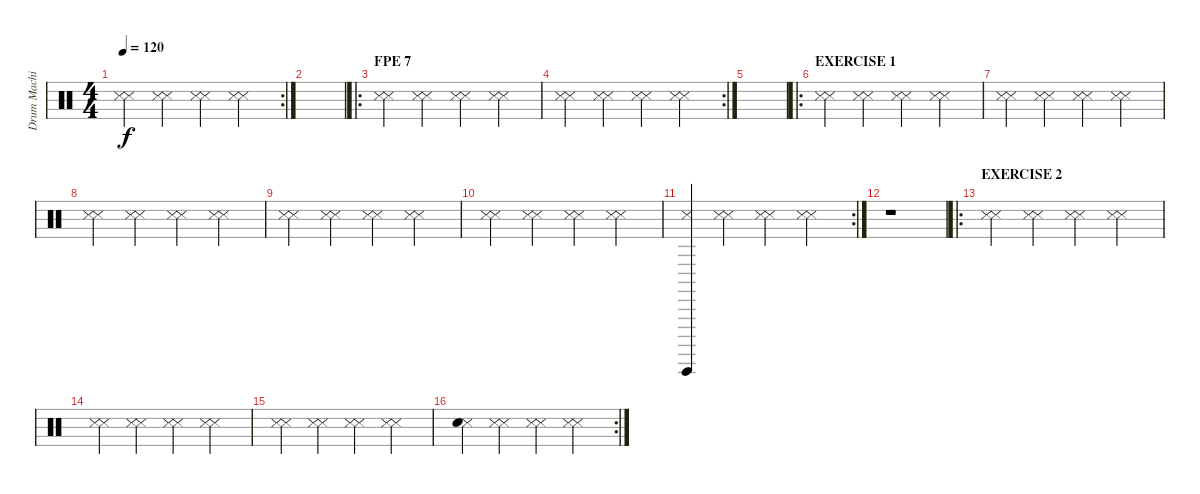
\track ("Drum Machine" "Drum Machi") {instrument percussion}
\staff {score}
\articulation defaults
\rc 2
\ts (4 4)
\tempo 120
\clef neutral
\ks c
("Snare (side stick) 3" "Snare (side stick) 3").4{dy f} ("Snare (side stick) 3" "Snare (side stick) 3").4 ("Snare (side stick) 3" "Snare (side stick) 3").4 ("Snare (side stick) 3" "Snare (side stick) 3").4 |
|
\ro
\section ("" "FPE 7")
("Snare (side stick) 3" "Snare (side stick) 3").4 ("Snare (side stick) 3" "Snare (side stick) 3").4 ("Snare (side stick) 3" "Snare (side stick) 3").4 ("Snare (side stick) 3" "Snare (side stick) 3").4 |
\rc 2
("Snare (side stick) 3" "Snare (side stick) 3").4 ("Snare (side stick) 3" "Snare (side stick) 3").4 ("Snare (side stick) 3" "Snare (side stick) 3").4 ("Snare (side stick) 3" "Snare (side stick) 3").4 |
|
\ro
\section ("" "EXERCISE 1")
("Snare (side stick) 3" "Snare (side stick) 3").4 ("Snare (side stick) 3" "Snare (side stick) 3").4 ("Snare (side stick) 3" "Snare (side stick) 3").4 ("Snare (side stick) 3" "Snare (side stick) 3").4 |
("Snare (side stick) 3" "Snare (side stick) 3").4 ("Snare (side stick) 3" "Snare (side stick) 3").4 ("Snare (side stick) 3" "Snare (side stick) 3").4 ("Snare (side stick) 3" "Snare (side stick) 3").4 |
("Snare (side stick) 3" "Snare (side stick) 3").4 ("Snare (side stick) 3" "Snare (side stick) 3").4 ("Snare (side stick) 3" "Snare (side stick) 3").4 ("Snare (side stick) 3" "Snare (side stick) 3").4 |
("Snare (side stick) 3" "Snare (side stick) 3").4 ("Snare (side stick) 3" "Snare (side stick) 3").4 ("Snare (side stick) 3" "Snare (side stick) 3").4 ("Snare (side stick) 3" "Snare (side stick) 3").4 |
("Snare (side stick) 3" "Snare (side stick) 3").4 ("Snare (side stick) 3" "Snare (side stick) 3").4 ("Snare (side stick) 3" "Snare (side stick) 3").4 ("Snare (side stick) 3" "Snare (side stick) 3").4 |
\rc 2
("Guiro (hit)" "Snare (side stick) 3").4 ("Snare (side stick) 3" "Snare (side stick) 3").4 ("Snare (side stick) 3" "Snare (side stick) 3").4 ("Snare (side stick) 3" "Snare (side stick) 3").4 |
r.1 |
\ro
\section ("" "EXERCISE 2")
("Snare (side stick) 3" "Snare (side stick) 3").4 ("Snare (side stick) 3" "Snare (side stick) 3").4 ("Snare (side stick) 3" "Snare (side stick) 3").4 ("Snare (side stick) 3" "Snare (side stick) 3").4 |
("Snare (side stick) 3" "Snare (side stick) 3").4 ("Snare (side stick) 3" "Snare (side stick) 3").4 ("Snare (side stick) 3" "Snare (side stick) 3").4 ("Snare (side stick) 3" "Snare (side stick) 3").4 |
("Snare (side stick) 3" "Snare (side stick) 3").4 ("Snare (side stick) 3" "Snare (side stick) 3").4 ("Snare (side stick) 3" "Snare (side stick) 3").4 ("Snare (side stick) 3" "Snare (side stick) 3").4 |
\rc 2
("Snare (side stick) 3" "Snare (hit)").4 ("Snare (side stick) 3" "Snare (side stick) 3").4 ("Snare (side stick) 3" "Snare (side stick) 3").4 ("Snare (side stick) 3" "Snare (side stick) 3").4
